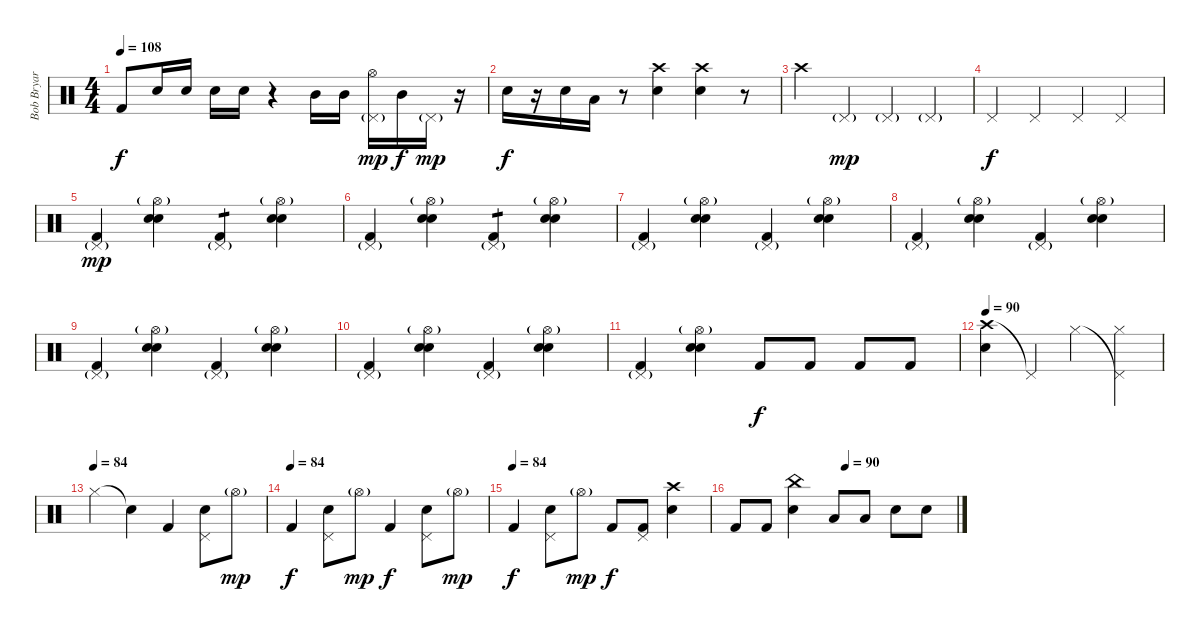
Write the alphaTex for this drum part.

\track ("Bob Bryar (Drums)" "Bob Bryar ") {instrument percussion}
\staff {score}
\articulation defaults
\ts (4 4)
\tempo 108
\clef neutral
\ks c "Kick (hit) 2".8{dy f} "Electric Snare (hit)".16 "Electric Snare (hit)".16 "Electric Snare (hit)".16 "Electric Snare (hit)".16
r.4 "Mid Tom (hit)".16 "Mid Tom (hit)".16 ("Pedal Hi-Hat (hit)"{g} "Hi-Hat (open)").16{dy mp} "Mid Tom (hit)".16{dy f} "Pedal Hi-Hat (hit)"{g}.16{dy mp} r.16 |
"Electric Snare (hit)".16{dy f} r.16 "Electric Snare (hit)".16 "Low Tom (hit)".16 r.8 ("Crash high (hit)" "Electric Snare (hit)").4 ("Crash high (hit)" "Electric Snare (hit)").4 r.8 |
"Crash high (hit)".4 "Pedal Hi-Hat (hit)"{g}.4{dy mp} "Pedal Hi-Hat (hit)"{g}.4 "Pedal Hi-Hat (hit)"{g}.4 |
"Pedal Hi-Hat (hit)".4{dy f} "Pedal Hi-Hat (hit)".4 "Pedal Hi-Hat (hit)".4 "Pedal Hi-Hat (hit)".4 |
("Pedal Hi-Hat (hit)"{g} "Kick (hit) 2").4{dy mp} ("Electric Snare (hit)" "Electric Snare (hit)" "Hi-Hat (open)"{g}).4 ("Pedal Hi-Hat (hit)"{g} "Kick (hit) 2").4{tp 1} ("Electric Snare (hit)" "Electric Snare (hit)" "Hi-Hat (open)"{g}).4 |
("Pedal Hi-Hat (hit)"{g} "Kick (hit) 2").4 ("Electric Snare (hit)" "Electric Snare (hit)" "Hi-Hat (open)"{g}).4 ("Pedal Hi-Hat (hit)"{g} "Kick (hit) 2").4{tp 1} ("Electric Snare (hit)" "Electric Snare (hit)" "Hi-Hat (open)"{g}).4 |
("Pedal Hi-Hat (hit)"{g} "Kick (hit) 2").4 ("Electric Snare (hit)" "Electric Snare (hit)" "Hi-Hat (open)"{g}).4 ("Pedal Hi-Hat (hit)"{g} "Kick (hit) 2").4 ("Electric Snare (hit)" "Electric Snare (hit)" "Hi-Hat (open)"{g}).4 |
("Pedal Hi-Hat (hit)"{g} "Kick (hit) 2").4 ("Electric Snare (hit)" "Electric Snare (hit)" "Hi-Hat (open)"{g}).4 ("Pedal Hi-Hat (hit)"{g} "Kick (hit) 2").4 ("Electric Snare (hit)" "Electric Snare (hit)" "Hi-Hat (open)"{g}).4 |
("Pedal Hi-Hat (hit)"{g} "Kick (hit) 2").4 ("Electric Snare (hit)" "Electric Snare (hit)" "Hi-Hat (open)"{g}).4 ("Pedal Hi-Hat (hit)"{g} "Kick (hit) 2").4 ("Electric Snare (hit)" "Electric Snare (hit)" "Hi-Hat (open)"{g}).4 |
("Pedal Hi-Hat (hit)"{g} "Kick (hit) 2").4 ("Electric Snare (hit)" "Electric Snare (hit)" "Hi-Hat (open)"{g}).4 ("Pedal Hi-Hat (hit)"{g} "Kick (hit) 2").4 ("Electric Snare (hit)" "Electric Snare (hit)" "Hi-Hat (open)"{g}).4 |
("Pedal Hi-Hat (hit)"{g} "Kick (hit) 2").4 ("Electric Snare (hit)" "Electric Snare (hit)" "Hi-Hat (open)"{g}).4 "Kick (hit) 2".8{dy f} "Kick (hit) 2".8 "Kick (hit) 2".8 "Kick (hit) 2".8 |
\tempo 90
("Crash high (hit)" "Electric Snare (hit)").4 "Pedal Hi-Hat (hit)"{t}.4 "Hi-Hat (closed)".4 ("Pedal Hi-Hat (hit)"{t} "Hi-Hat (closed)").4 |
\tempo (84)
"Hi-Hat (closed)".4 "Snare (hit)"{t}.4 "Kick (hit) 2".4 ("Pedal Hi-Hat (hit)" "Electric Snare (hit)").8 "Hi-Hat (open)"{g}.8{dy mp} |
\tempo (84)
"Kick (hit) 2".4{dy f} ("Pedal Hi-Hat (hit)" "Electric Snare (hit)").8 "Hi-Hat (open)"{g}.8{dy mp} "Kick (hit) 2".4{dy f} ("Pedal Hi-Hat (hit)" "Electric Snare (hit)").8 "Hi-Hat (open)"{g}.8{dy mp} |
\tempo (84)
"Kick (hit) 2".4{dy f} ("Pedal Hi-Hat (hit)" "Electric Snare (hit)").8 "Hi-Hat (open)"{g}.8{dy mp} "Kick (hit) 2".8{dy f} ("Pedal Hi-Hat (hit)" "Kick (hit) 2").8 ("Crash high (hit)" "Electric Snare (hit)").4 |
\tempo (90 0.5)
"Kick (hit) 2".8 "Kick (hit) 2".8 ("China (hit)" "Electric Snare (hit)").4 "Low Tom (hit)".8 "Low Tom (hit)".8 "Electric Snare (hit)".8 "Electric Snare (hit)".8
